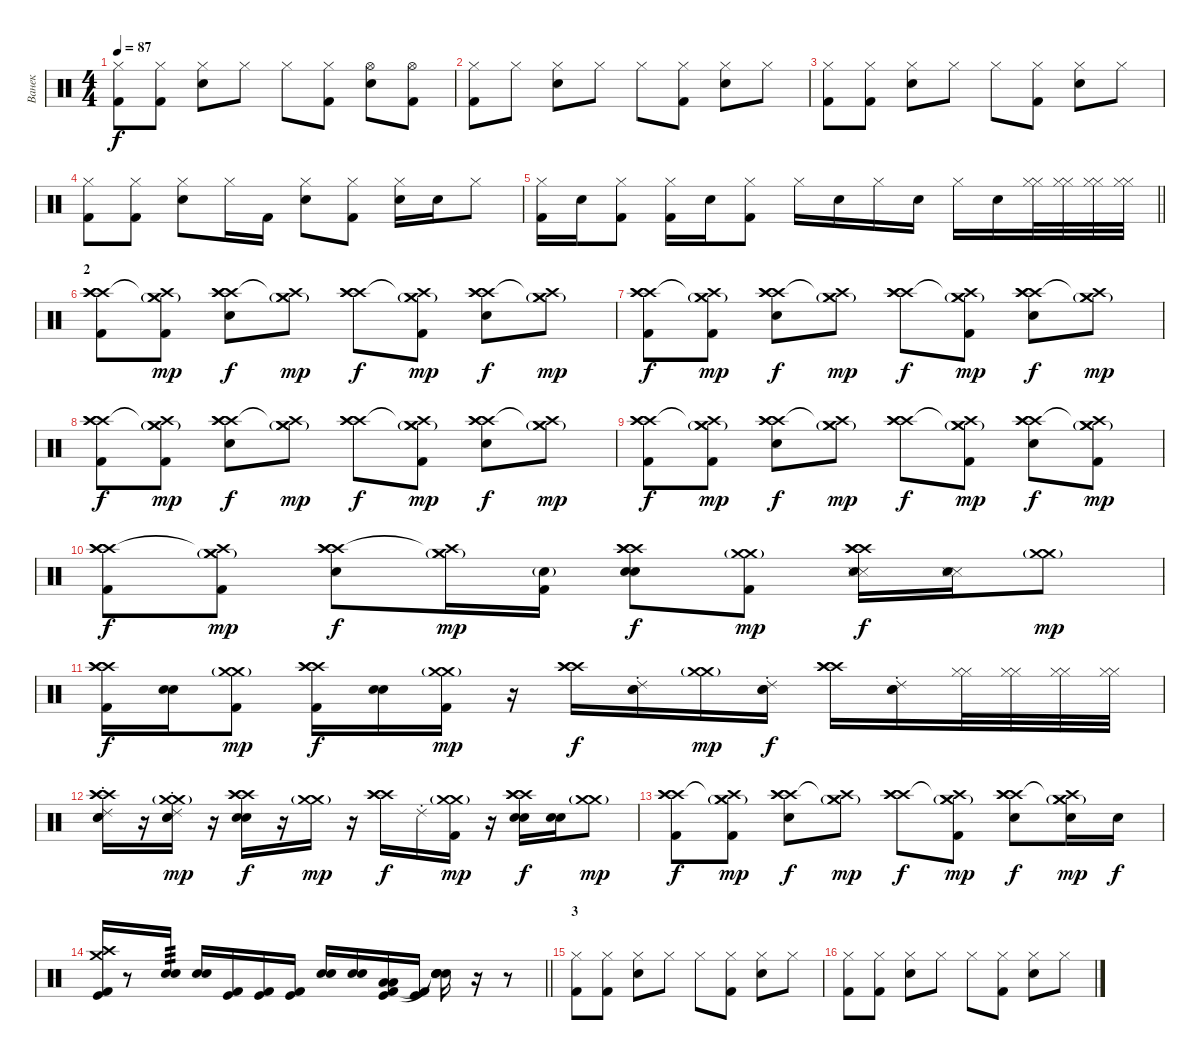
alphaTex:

\track ("Ванек" "Ванек") {instrument percussion}
\staff {score}
\articulation defaults
\ts (4 4)
\tempo 87
\clef neutral
\ks c
("Hi-Hat (closed)" "Kick (hit) 2").8{dy f} ("Hi-Hat (closed)" "Kick (hit) 2").8 ("Hi-Hat (closed)" "Snare (hit) 2").8 "Hi-Hat (closed)".8 "Hi-Hat (closed)".8 ("Hi-Hat (closed)" "Kick (hit) 2").8 ("Hi-Hat (open)" "Snare (hit) 2").8 ("Hi-Hat (open)" "Kick (hit) 2").8 |
("Hi-Hat (closed)" "Kick (hit) 2").8 "Hi-Hat (closed)".8 ("Hi-Hat (closed)" "Snare (hit) 2").8 "Hi-Hat (closed)".8 "Hi-Hat (closed)".8 ("Hi-Hat (closed)" "Kick (hit) 2").8 ("Hi-Hat (closed)" "Snare (hit) 2").8 "Hi-Hat (closed)".8 |
("Hi-Hat (closed)" "Kick (hit) 2").8 ("Hi-Hat (closed)" "Kick (hit) 2").8 ("Hi-Hat (closed)" "Snare (hit) 2").8 "Hi-Hat (closed)".8 "Hi-Hat (closed)".8 ("Hi-Hat (closed)" "Kick (hit) 2").8 ("Hi-Hat (closed)" "Snare (hit) 2").8 "Hi-Hat (closed)".8 |
("Hi-Hat (closed)" "Kick (hit) 2").8 ("Hi-Hat (closed)" "Kick (hit) 2").8 ("Hi-Hat (closed)" "Snare (hit) 2").8 "Hi-Hat (closed)".16 "Kick (hit) 2".16 ("Hi-Hat (closed)" "Snare (hit) 2").8 ("Hi-Hat (closed)" "Kick (hit) 2").8 ("Hi-Hat (closed)" "Snare (hit) 2").16 "Snare (hit) 2".16 "Hi-Hat (closed)".8 |
\barLineRight lightlight
("Hi-Hat (closed)" "Kick (hit) 2").16 "Snare (hit) 2".16 ("Hi-Hat (closed)" "Kick (hit) 2").8 ("Hi-Hat (closed)" "Kick (hit) 2").16 "Snare (hit) 2".16 ("Hi-Hat (closed)" "Kick (hit) 2").8 "Hi-Hat (closed)".16 "Snare (hit) 2".16 "Hi-Hat (closed)".16 "Snare (hit) 2".16 "Hi-Hat (closed)".16 "Snare (hit) 2".16 ("Hi-Hat (closed)" "Hi-Hat (closed)").32 ("Hi-Hat (closed)" "Hi-Hat (closed)").32 ("Hi-Hat (closed)" "Hi-Hat (closed)").32 ("Hi-Hat (closed)" "Hi-Hat (closed)").32 |
\section ("" "2")
("Crash high (hit)" "Crash high (hit)" "Crash high (hit)" "Kick (hit) 2").8 ("Crash medium (hit)"{g} "Crash medium (hit)"{g} "Crash high (hit)"{t} "Kick (hit) 2").8{dy mp} ("Crash high (hit)" "Crash high (hit)" "Crash high (hit)" "Snare (hit) 2").8{dy f} ("Crash medium (hit)"{g} "Crash medium (hit)"{g} "Crash high (hit)"{t}).8{dy mp} ("Crash high (hit)" "Crash high (hit)" "Crash high (hit)").8{dy f} ("Crash medium (hit)"{g} "Crash medium (hit)"{g} "Crash high (hit)"{t} "Kick (hit) 2").8{dy mp} ("Crash high (hit)" "Crash high (hit)" "Crash high (hit)" "Snare (hit) 2").8{dy f} ("Crash medium (hit)"{g} "Crash medium (hit)"{g} "Crash high (hit)"{t}).8{dy mp} |
("Crash high (hit)" "Crash high (hit)" "Crash high (hit)" "Kick (hit) 2").8{dy f} ("Crash medium (hit)"{g} "Crash medium (hit)"{g} "Crash high (hit)"{t} "Kick (hit) 2").8{dy mp} ("Crash high (hit)" "Crash high (hit)" "Crash high (hit)" "Snare (hit) 2").8{dy f} ("Crash medium (hit)"{g} "Crash medium (hit)"{g} "Crash high (hit)"{t}).8{dy mp} ("Crash high (hit)" "Crash high (hit)" "Crash high (hit)").8{dy f} ("Crash medium (hit)"{g} "Crash medium (hit)"{g} "Crash high (hit)"{t} "Kick (hit) 2").8{dy mp} ("Crash high (hit)" "Crash high (hit)" "Crash high (hit)" "Snare (hit) 2").8{dy f} ("Crash medium (hit)"{g} "Crash medium (hit)"{g} "Crash high (hit)"{t}).8{dy mp} |
("Crash high (hit)" "Crash high (hit)" "Crash high (hit)" "Kick (hit) 2").8{dy f} ("Crash medium (hit)"{g} "Crash medium (hit)"{g} "Crash high (hit)"{t} "Kick (hit) 2").8{dy mp} ("Crash high (hit)" "Crash high (hit)" "Crash high (hit)" "Snare (hit) 2").8{dy f} ("Crash medium (hit)"{g} "Crash medium (hit)"{g} "Crash high (hit)"{t}).8{dy mp} ("Crash high (hit)" "Crash high (hit)" "Crash high (hit)").8{dy f} ("Crash medium (hit)"{g} "Crash medium (hit)"{g} "Crash high (hit)"{t} "Kick (hit) 2").8{dy mp} ("Crash high (hit)" "Crash high (hit)" "Crash high (hit)" "Snare (hit) 2").8{dy f} ("Crash medium (hit)"{g} "Crash medium (hit)"{g} "Crash high (hit)"{t}).8{dy mp} |
("Crash high (hit)" "Crash high (hit)" "Crash high (hit)" "Kick (hit) 2").8{dy f} ("Crash medium (hit)"{g} "Crash medium (hit)"{g} "Crash high (hit)"{t} "Kick (hit) 2").8{dy mp} ("Crash high (hit)" "Crash high (hit)" "Crash high (hit)" "Snare (hit) 2").8{dy f} ("Crash medium (hit)"{g} "Crash medium (hit)"{g} "Crash high (hit)"{t}).8{dy mp} ("Crash high (hit)" "Crash high (hit)" "Crash high (hit)").8{dy f} ("Crash medium (hit)"{g} "Crash medium (hit)"{g} "Crash high (hit)"{t} "Kick (hit) 2").8{dy mp} ("Crash high (hit)" "Crash high (hit)" "Crash high (hit)" "Snare (hit) 2").8{dy f} ("Crash medium (hit)"{g} "Crash medium (hit)"{g} "Crash high (hit)"{t} "Kick (hit) 2").8{dy mp} |
("Crash high (hit)" "Crash high (hit)" "Crash high (hit)" "Kick (hit) 2").8{dy f} ("Crash medium (hit)"{g} "Crash medium (hit)"{g} "Crash high (hit)"{t} "Kick (hit) 2").8{dy mp} ("Crash high (hit)" "Crash high (hit)" "Crash high (hit)" "Snare (hit) 2").8{dy f} ("Crash medium (hit)"{g} "Crash medium (hit)"{g} "Crash high (hit)"{t}).16{dy mp} ("Electric Snare (hit)"{g} "Kick (hit) 2").16 ("Crash high (hit)" "Crash high (hit)" "Crash high (hit)" "Electric Snare (hit)" "Snare (hit) 2").8{dy f} ("Crash medium (hit)"{g} "Crash medium (hit)"{g} "Kick (hit) 2").8{dy mp} ("Crash high (hit)" "Crash high (hit)" "Crash high (hit)" "Snare (side stick) 3" "Snare (hit) 2" "Snare (side stick) 3").16{dy f} ("Snare (side stick) 3" "Snare (hit) 2" "Snare (side stick) 3").16 ("Crash medium (hit)"{g} "Crash medium (hit)"{g}).8{dy mp} |
("Crash high (hit)" "Crash high (hit)" "Crash high (hit)" "Kick (hit) 2").16{dy f} ("Snare (hit) 2" "Electric Snare (hit)").16 ("Crash medium (hit)"{g} "Crash medium (hit)"{g} "Kick (hit) 2").8{dy mp} ("Crash high (hit)" "Crash high (hit)" "Crash high (hit)" "Kick (hit) 2").16{dy f} ("Snare (hit) 2" "Electric Snare (hit)").16 ("Crash medium (hit)"{g} "Crash medium (hit)"{g} "Kick (hit) 2").16{dy mp} r.16 ("Crash high (hit)" "Crash high (hit)" "Crash high (hit)").16{dy f} ("Snare (hit) 2" "Electric Snare (hit)" "Ride (choke) 2").16 ("Crash medium (hit)"{g} "Crash medium (hit)"{g}).16{dy mp} ("Snare (hit) 2" "Electric Snare (hit)" "Ride (choke) 2").16{dy f} ("Crash high (hit)" "Crash high (hit)" "Crash high (hit)").16 ("Snare (hit) 2" "Electric Snare (hit)" "Ride (choke) 2").16 ("Hi-Hat (closed)" "Hi-Hat (closed)").32 ("Hi-Hat (closed)" "Hi-Hat (closed)").32 ("Hi-Hat (closed)" "Hi-Hat (closed)").32 ("Hi-Hat (closed)" "Hi-Hat (closed)").32 |
("Crash high (hit)" "Crash high (hit)" "Crash high (hit)" "Snare (hit) 2" "Electric Snare (hit)" "Ride (choke) 2").16 r.16 ("Crash medium (hit)"{g} "Crash medium (hit)"{g} "Snare (hit) 2" "Electric Snare (hit)" "Ride (choke) 2").16{dy mp} r.16 ("Crash high (hit)" "Crash high (hit)" "Crash high (hit)" "Snare (hit) 2" "Snare (hit) 2").16{dy f} r.16 ("Crash medium (hit)"{g} "Crash medium (hit)"{g}).16{dy mp} r.16 ("Crash high (hit)" "Crash high (hit)" "Crash high (hit)").16{dy f} "Ride (choke) 2".16 ("Crash medium (hit)"{g} "Crash medium (hit)"{g} "Kick (hit) 2").16{dy mp} r.16 ("Crash high (hit)" "Crash high (hit)" "Crash high (hit)" "Snare (hit) 2" "Electric Snare (hit)").16{dy f} ("Snare (hit) 2" "Electric Snare (hit)").16 ("Crash medium (hit)"{g} "Crash medium (hit)"{g}).8{dy mp} |
("Crash high (hit)" "Crash high (hit)" "Crash high (hit)" "Kick (hit) 2").8{dy f} ("Crash medium (hit)"{g} "Crash medium (hit)"{g} "Crash high (hit)"{t} "Kick (hit) 2").8{dy mp} ("Crash high (hit)" "Crash high (hit)" "Crash high (hit)" "Snare (hit) 2").8{dy f} ("Crash medium (hit)"{g} "Crash medium (hit)"{g} "Crash high (hit)"{t}).8{dy mp} ("Crash high (hit)" "Crash high (hit)" "Crash high (hit)").8{dy f} ("Crash medium (hit)"{g} "Crash medium (hit)"{g} "Crash high (hit)"{t} "Kick (hit) 2").8{dy mp} ("Crash high (hit)" "Crash high (hit)" "Crash high (hit)" "Snare (hit) 2").8{dy f} ("Crash medium (hit)"{g} "Crash medium (hit)"{g} "Crash high (hit)"{t} "Snare (hit) 2").16{dy mp} "Snare (hit) 2".16{dy f} |
\barLineRight lightlight
("Crash medium (hit)" "Crash high (hit)" "Kick (hit) 2" "Kick (hit)").16 r.8 ("Snare (hit) 2" "Electric Snare (hit)").16{tp 3} ("Snare (hit) 2" "Electric Snare (hit)").16 ("Kick (hit) 2" "Kick (hit)").16 ("Kick (hit) 2" "Kick (hit)").16 ("Kick (hit) 2" "Kick (hit)").16 ("Snare (hit) 2" "Electric Snare (hit)").16 ("Snare (hit) 2" "Electric Snare (hit)").16 ("Low Floor Tom (hit)" "Low Floor Tom (hit)" "Kick (hit) 2" "Kick (hit)").16 ("Kick (hit) 2" "Kick (hit)").16 ("Snare (hit) 2" "Electric Snare (hit)" "Snare (hit)"{t} "Snare (hit)"{t}).16 r.16 r.8 |
\section ("" "3")
("Hi-Hat (closed)" "Kick (hit) 2").8 ("Hi-Hat (closed)" "Kick (hit) 2").8 ("Hi-Hat (closed)" "Snare (hit) 2").8 "Hi-Hat (closed)".8 "Hi-Hat (closed)".8 ("Hi-Hat (closed)" "Kick (hit) 2").8 ("Hi-Hat (closed)" "Snare (hit) 2").8 "Hi-Hat (closed)".8 |
("Hi-Hat (closed)" "Kick (hit) 2").8 ("Hi-Hat (closed)" "Kick (hit) 2").8 ("Hi-Hat (closed)" "Snare (hit) 2").8 "Hi-Hat (closed)".8 "Hi-Hat (closed)".8 ("Hi-Hat (closed)" "Kick (hit) 2").8 ("Hi-Hat (closed)" "Snare (hit) 2").8 "Hi-Hat (closed)".8
